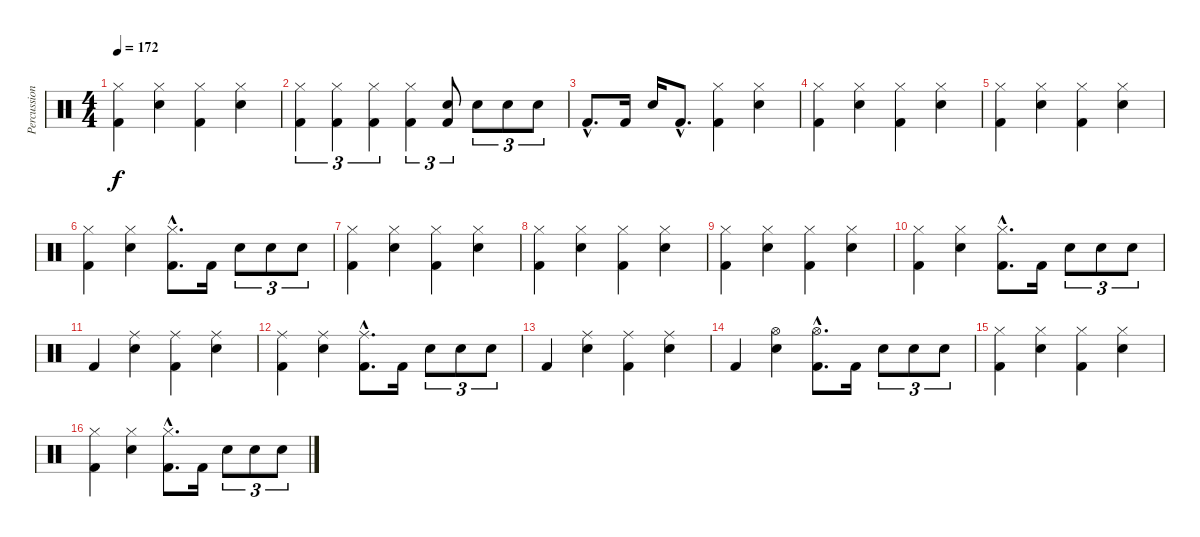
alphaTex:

\track ("Percussion" "Percussion") {instrument percussion}
\staff {score}
\articulation defaults
\ts (4 4)
\tempo 172
\clef neutral
\ks c
("Hi-Hat (closed)" "Kick (hit) 2").4{dy f} ("Hi-Hat (closed)" "Snare (hit) 2").4 ("Hi-Hat (closed)" "Kick (hit) 2").4 ("Hi-Hat (closed)" "Snare (hit) 2").4 |
("Hi-Hat (closed)" "Kick (hit) 2").4{tu (3 2)} ("Hi-Hat (closed)" "Kick (hit) 2").4{tu (3 2)} ("Hi-Hat (closed)" "Kick (hit) 2").4{tu (3 2)} ("Hi-Hat (closed)" "Kick (hit) 2").4{tu (3 2)} ("Snare (hit) 2" "Kick (hit) 2").8{tu (3 2)} "Snare (hit) 2".8{tu (3 2)} "Snare (hit) 2".8{tu (3 2)} "Snare (hit) 2".8{tu (3 2)} |
"Kick (hit) 2"{hac}.8{d} "Kick (hit) 2".16 "Snare (hit) 2".16 "Kick (hit) 2"{hac}.8{d} ("Hi-Hat (closed)" "Kick (hit) 2").4 ("Hi-Hat (closed)" "Snare (hit) 2").4 |
("Hi-Hat (closed)" "Kick (hit) 2").4 ("Hi-Hat (closed)" "Snare (hit) 2").4 ("Hi-Hat (closed)" "Kick (hit) 2").4 ("Hi-Hat (closed)" "Snare (hit) 2").4 |
("Hi-Hat (closed)" "Kick (hit) 2").4 ("Hi-Hat (closed)" "Snare (hit) 2").4 ("Hi-Hat (closed)" "Kick (hit) 2").4 ("Hi-Hat (closed)" "Snare (hit) 2").4 |
("Hi-Hat (closed)" "Kick (hit) 2").4 ("Hi-Hat (closed)" "Snare (hit) 2").4 ("Hi-Hat (closed)"{hac} "Kick (hit) 2"{hac}).8{d} "Kick (hit) 2".16 "Snare (hit) 2".8{tu (3 2)} "Snare (hit) 2".8{tu (3 2)} "Snare (hit) 2".8{tu (3 2)} |
("Hi-Hat (closed)" "Kick (hit) 2").4 ("Hi-Hat (closed)" "Snare (hit) 2").4 ("Hi-Hat (closed)" "Kick (hit) 2").4 ("Hi-Hat (closed)" "Snare (hit) 2").4 |
("Hi-Hat (closed)" "Kick (hit) 2").4 ("Hi-Hat (closed)" "Snare (hit) 2").4 ("Hi-Hat (closed)" "Kick (hit) 2").4 ("Hi-Hat (closed)" "Snare (hit) 2").4 |
("Hi-Hat (closed)" "Kick (hit) 2").4 ("Hi-Hat (closed)" "Snare (hit) 2").4 ("Hi-Hat (closed)" "Kick (hit) 2").4 ("Hi-Hat (closed)" "Snare (hit) 2").4 |
("Hi-Hat (closed)" "Kick (hit) 2").4 ("Hi-Hat (closed)" "Snare (hit) 2").4 ("Hi-Hat (closed)"{hac} "Kick (hit) 2"{hac}).8{d} "Kick (hit) 2".16 "Snare (hit) 2".8{tu (3 2)} "Snare (hit) 2".8{tu (3 2)} "Snare (hit) 2".8{tu (3 2)} |
"Kick (hit) 2".4 ("Ride (middle)" "Snare (hit) 2").4 ("Ride (middle)" "Kick (hit) 2").4 ("Ride (middle)" "Snare (hit) 2").4 |
("Ride (middle)" "Kick (hit) 2").4 ("Ride (middle)" "Snare (hit) 2").4 ("Ride (middle)"{hac} "Kick (hit) 2"{hac}).8{d} "Kick (hit) 2".16 "Snare (hit) 2".8{tu (3 2)} "Snare (hit) 2".8{tu (3 2)} "Snare (hit) 2".8{tu (3 2)} |
"Kick (hit) 2".4 ("Ride (middle)" "Snare (hit) 2").4 ("Ride (middle)" "Kick (hit) 2").4 ("Ride (middle)" "Snare (hit) 2").4 |
"Kick (hit) 2".4 ("Hi-Hat (open)" "Snare (hit) 2").4 ("Hi-Hat (open)"{hac} "Kick (hit) 2"{hac}).8{d} "Kick (hit) 2".16 "Snare (hit) 2".8{tu (3 2)} "Snare (hit) 2".8{tu (3 2)} "Snare (hit) 2".8{tu (3 2)} |
("Hi-Hat (closed)" "Kick (hit) 2").4 ("Hi-Hat (closed)" "Snare (hit) 2").4 ("Hi-Hat (closed)" "Kick (hit) 2").4 ("Hi-Hat (closed)" "Snare (hit) 2").4 |
("Hi-Hat (closed)" "Kick (hit) 2").4 ("Hi-Hat (closed)" "Snare (hit) 2").4 ("Hi-Hat (closed)"{hac} "Kick (hit) 2"{hac}).8{d} "Kick (hit) 2".16 "Snare (hit) 2".8{tu (3 2)} "Snare (hit) 2".8{tu (3 2)} "Snare (hit) 2".8{tu (3 2)}
